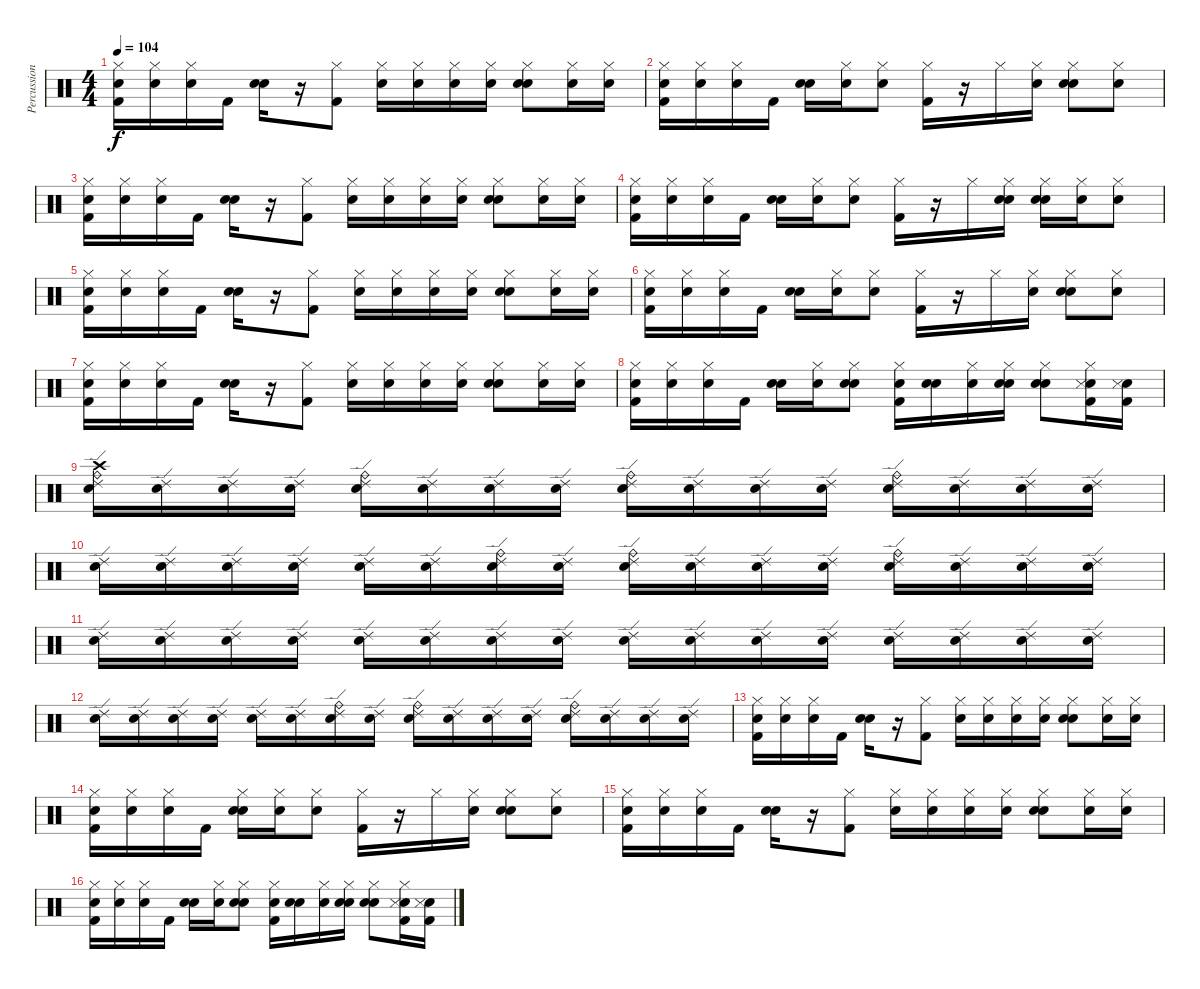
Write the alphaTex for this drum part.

\track ("Percussion" "Percussion") {instrument percussion}
\staff {score}
\articulation defaults
\ts (4 4)
\tempo 104
\clef neutral
\ks c
("Snare (hit)" "Kick (hit) 2" "Hi-Hat (closed)").16{dy f} ("Snare (hit)" "Hi-Hat (closed)").16 ("Snare (hit)" "Hi-Hat (closed)").16 "Kick (hit) 2".16 ("Snare (hit)" "Electric Snare (hit)").16 r.16 ("Hi-Hat (closed)" "Kick (hit) 2").8 ("Snare (hit)" "Hi-Hat (closed)").16 ("Snare (hit)" "Hi-Hat (closed)").16 ("Snare (hit)" "Hi-Hat (closed)").16 ("Snare (hit)" "Hi-Hat (closed)").16 ("Snare (hit)" "Electric Snare (hit)" "Hi-Hat (closed)").8 ("Snare (hit)" "Hi-Hat (closed)").16 ("Snare (hit)" "Hi-Hat (closed)").16 |
("Snare (hit)" "Hi-Hat (closed)" "Kick (hit) 2").16 ("Snare (hit)" "Hi-Hat (closed)").16 ("Snare (hit)" "Hi-Hat (closed)").16 "Kick (hit) 2".16 ("Snare (hit)" "Electric Snare (hit)").16 ("Snare (hit)" "Hi-Hat (closed)").16 ("Snare (hit)" "Hi-Hat (closed)").8 ("Kick (hit) 2" "Hi-Hat (closed)").16 r.16 "Hi-Hat (closed)".16 ("Snare (hit)" "Hi-Hat (closed)").16 ("Snare (hit)" "Electric Snare (hit)" "Hi-Hat (closed)").8 ("Snare (hit)" "Hi-Hat (closed)").8 |
("Snare (hit)" "Kick (hit) 2" "Hi-Hat (closed)").16 ("Snare (hit)" "Hi-Hat (closed)").16 ("Snare (hit)" "Hi-Hat (closed)").16 "Kick (hit) 2".16 ("Snare (hit)" "Electric Snare (hit)").16 r.16 ("Hi-Hat (closed)" "Kick (hit) 2").8 ("Snare (hit)" "Hi-Hat (closed)").16 ("Snare (hit)" "Hi-Hat (closed)").16 ("Snare (hit)" "Hi-Hat (closed)").16 ("Snare (hit)" "Hi-Hat (closed)").16 ("Snare (hit)" "Hi-Hat (closed)" "Electric Snare (hit)").8 ("Snare (hit)" "Hi-Hat (closed)").16 ("Snare (hit)" "Hi-Hat (closed)").16 |
("Snare (hit)" "Kick (hit) 2" "Hi-Hat (closed)").16 ("Snare (hit)" "Hi-Hat (closed)").16 ("Snare (hit)" "Hi-Hat (closed)").16 "Kick (hit) 2".16 ("Snare (hit)" "Electric Snare (hit)").16 ("Snare (hit)" "Hi-Hat (closed)").16 ("Snare (hit)" "Hi-Hat (closed)").8 ("Hi-Hat (closed)" "Kick (hit) 2").16 r.16 "Hi-Hat (closed)".16 ("Snare (hit)" "Hi-Hat (closed)" "Electric Snare (hit)").16 ("Snare (hit)" "Hi-Hat (closed)" "Electric Snare (hit)").16 ("Snare (hit)" "Hi-Hat (closed)").16 ("Snare (hit)" "Hi-Hat (closed)").8 |
("Snare (hit)" "Hi-Hat (closed)" "Kick (hit) 2").16 ("Snare (hit)" "Hi-Hat (closed)").16 ("Snare (hit)" "Hi-Hat (closed)").16 "Kick (hit) 2".16 ("Snare (hit)" "Electric Snare (hit)").16 r.16 ("Kick (hit) 2" "Hi-Hat (closed)").8 ("Snare (hit)" "Hi-Hat (closed)").16 ("Snare (hit)" "Hi-Hat (closed)").16 ("Snare (hit)" "Hi-Hat (closed)").16 ("Snare (hit)" "Hi-Hat (closed)").16 ("Snare (hit)" "Electric Snare (hit)" "Hi-Hat (closed)").8 ("Snare (hit)" "Hi-Hat (closed)").16 ("Snare (hit)" "Hi-Hat (closed)").16 |
("Snare (hit)" "Kick (hit) 2" "Hi-Hat (closed)").16 ("Snare (hit)" "Hi-Hat (closed)").16 ("Snare (hit)" "Hi-Hat (closed)").16 "Kick (hit) 2".16 ("Snare (hit)" "Electric Snare (hit)").16 ("Snare (hit)" "Hi-Hat (closed)").16 ("Snare (hit)" "Hi-Hat (closed)").8 ("Hi-Hat (closed)" "Kick (hit) 2").16 r.16 "Hi-Hat (closed)".16 ("Snare (hit)" "Hi-Hat (closed)").16 ("Snare (hit)" "Hi-Hat (closed)" "Electric Snare (hit)").8 ("Snare (hit)" "Hi-Hat (closed)").8 |
("Snare (hit)" "Hi-Hat (closed)" "Kick (hit) 2").16 ("Snare (hit)" "Hi-Hat (closed)").16 ("Snare (hit)" "Hi-Hat (closed)").16 "Kick (hit) 2".16 ("Snare (hit)" "Electric Snare (hit)").16 r.16 ("Kick (hit) 2" "Hi-Hat (closed)").8 ("Snare (hit)" "Hi-Hat (closed)").16 ("Snare (hit)" "Hi-Hat (closed)").16 ("Snare (hit)" "Hi-Hat (closed)").16 ("Snare (hit)" "Hi-Hat (closed)").16 ("Snare (hit)" "Electric Snare (hit)" "Hi-Hat (closed)").8 ("Snare (hit)" "Hi-Hat (closed)").16 ("Snare (hit)" "Hi-Hat (closed)").16 |
("Snare (hit)" "Kick (hit) 2" "Hi-Hat (closed)").16 ("Snare (hit)" "Hi-Hat (closed)").16 ("Snare (hit)" "Hi-Hat (closed)").16 "Kick (hit) 2".16 ("Snare (hit)" "Electric Snare (hit)").16 ("Snare (hit)" "Hi-Hat (closed)").16 ("Snare (hit)" "Electric Snare (hit)" "Hi-Hat (closed)").8 ("Snare (hit)" "Hi-Hat (closed)" "Kick (hit) 2").16 ("Snare (hit)" "Electric Snare (hit)").16 ("Snare (hit)" "Hi-Hat (closed)").16 ("Snare (hit)" "Hi-Hat (closed)" "Electric Snare (hit)").16 ("Snare (hit)" "Hi-Hat (closed)" "Electric Snare (hit)").8 ("Snare (hit)" "Metronome (hit)" "Hi-Hat (closed)" "Kick (hit) 2").16 ("Snare (hit)" "Metronome (hit)" "Kick (hit) 2").16 |
("Snare (hit)" "Ride (bell)" "Crash high (hit)" "Ride (edge) 2").16 ("Snare (hit)" "Ride (edge) 2").16 ("Snare (hit)" "Ride (edge) 2").16 ("Snare (hit)" "Ride (edge) 2").16 ("Snare (hit)" "Ride (edge) 2" "Ride (bell)").16 ("Snare (hit)" "Ride (edge) 2").16 ("Snare (hit)" "Ride (edge) 2").16 ("Snare (hit)" "Ride (edge) 2").16 ("Snare (hit)" "Ride (edge) 2" "Ride (bell)").16 ("Snare (hit)" "Ride (edge) 2").16 ("Snare (hit)" "Ride (edge) 2").16 ("Snare (hit)" "Ride (edge) 2").16 ("Snare (hit)" "Ride (bell)" "Ride (edge) 2").16 ("Snare (hit)" "Ride (edge) 2").16 ("Snare (hit)" "Ride (edge) 2").16 ("Snare (hit)" "Ride (edge) 2").16 |
("Snare (hit)" "Ride (edge) 2").16 ("Snare (hit)" "Ride (edge) 2").16 ("Snare (hit)" "Ride (edge) 2").16 ("Snare (hit)" "Ride (edge) 2").16 ("Snare (hit)" "Ride (edge) 2").16 ("Snare (hit)" "Ride (edge) 2").16 ("Snare (hit)" "Ride (edge) 2" "Ride (bell)").16 ("Snare (hit)" "Ride (edge) 2").16 ("Snare (hit)" "Ride (edge) 2" "Ride (bell)").16 ("Snare (hit)" "Ride (edge) 2").16 ("Snare (hit)" "Ride (edge) 2").16 ("Snare (hit)" "Ride (edge) 2").16 ("Snare (hit)" "Ride (bell)" "Ride (edge) 2").16 ("Snare (hit)" "Ride (edge) 2").16 ("Snare (hit)" "Ride (edge) 2").16 ("Snare (hit)" "Ride (edge) 2").16 |
("Snare (hit)" "Ride (edge) 2").16 ("Snare (hit)" "Ride (edge) 2").16 ("Snare (hit)" "Ride (edge) 2").16 ("Snare (hit)" "Ride (edge) 2").16 ("Snare (hit)" "Ride (edge) 2").16 ("Snare (hit)" "Ride (edge) 2").16 ("Snare (hit)" "Ride (edge) 2").16 ("Snare (hit)" "Ride (edge) 2").16 ("Snare (hit)" "Ride (edge) 2").16 ("Snare (hit)" "Ride (edge) 2").16 ("Snare (hit)" "Ride (edge) 2").16 ("Snare (hit)" "Ride (edge) 2").16 ("Snare (hit)" "Ride (edge) 2").16 ("Snare (hit)" "Ride (edge) 2").16 ("Snare (hit)" "Ride (edge) 2").16 ("Snare (hit)" "Ride (edge) 2").16 |
("Snare (hit)" "Ride (edge) 2").16 ("Snare (hit)" "Ride (edge) 2").16 ("Snare (hit)" "Ride (edge) 2").16 ("Snare (hit)" "Ride (edge) 2").16 ("Snare (hit)" "Ride (edge) 2").16 ("Snare (hit)" "Ride (edge) 2").16 ("Snare (hit)" "Ride (edge) 2" "Ride (bell)").16 ("Snare (hit)" "Ride (edge) 2").16 ("Snare (hit)" "Ride (edge) 2" "Ride (bell)").16 ("Snare (hit)" "Ride (edge) 2").16 ("Snare (hit)" "Ride (edge) 2").16 ("Snare (hit)" "Ride (edge) 2").16 ("Snare (hit)" "Ride (edge) 2" "Ride (bell)").16 ("Snare (hit)" "Ride (edge) 2").16 ("Snare (hit)" "Ride (edge) 2").16 ("Snare (hit)" "Ride (edge) 2").16 |
("Snare (hit)" "Hi-Hat (closed)" "Kick (hit) 2").16 ("Snare (hit)" "Hi-Hat (closed)").16 ("Snare (hit)" "Hi-Hat (closed)").16 "Kick (hit) 2".16 ("Snare (hit)" "Electric Snare (hit)").16 r.16 ("Kick (hit) 2" "Hi-Hat (closed)").8 ("Snare (hit)" "Hi-Hat (closed)").16 ("Snare (hit)" "Hi-Hat (closed)").16 ("Snare (hit)" "Hi-Hat (closed)").16 ("Snare (hit)" "Hi-Hat (closed)").16 ("Snare (hit)" "Electric Snare (hit)" "Hi-Hat (closed)").8 ("Snare (hit)" "Hi-Hat (closed)").16 ("Snare (hit)" "Hi-Hat (closed)").16 |
("Snare (hit)" "Kick (hit) 2" "Hi-Hat (closed)").16 ("Snare (hit)" "Hi-Hat (closed)").16 ("Snare (hit)" "Hi-Hat (closed)").16 "Kick (hit) 2".16 ("Snare (hit)" "Electric Snare (hit)" "Hi-Hat (closed)").16 ("Snare (hit)" "Hi-Hat (closed)").16 ("Snare (hit)" "Hi-Hat (closed)").8 ("Hi-Hat (closed)" "Kick (hit) 2").16 r.16 "Hi-Hat (closed)".16 ("Snare (hit)" "Hi-Hat (closed)").16 ("Snare (hit)" "Hi-Hat (closed)" "Electric Snare (hit)").8 ("Snare (hit)" "Hi-Hat (closed)").8 |
("Snare (hit)" "Kick (hit) 2" "Hi-Hat (closed)").16 ("Snare (hit)" "Hi-Hat (closed)").16 ("Snare (hit)" "Hi-Hat (closed)").16 "Kick (hit) 2".16 ("Snare (hit)" "Electric Snare (hit)").16 r.16 ("Hi-Hat (closed)" "Kick (hit) 2").8 ("Snare (hit)" "Hi-Hat (closed)").16 ("Snare (hit)" "Hi-Hat (closed)").16 ("Snare (hit)" "Hi-Hat (closed)").16 ("Snare (hit)" "Hi-Hat (closed)").16 ("Snare (hit)" "Hi-Hat (closed)" "Electric Snare (hit)").8 ("Snare (hit)" "Hi-Hat (closed)").16 ("Snare (hit)" "Hi-Hat (closed)").16 |
("Snare (hit)" "Hi-Hat (closed)" "Kick (hit) 2").16 ("Snare (hit)" "Hi-Hat (closed)").16 ("Snare (hit)" "Hi-Hat (closed)").16 "Kick (hit) 2".16 ("Snare (hit)" "Electric Snare (hit)").16 ("Snare (hit)" "Hi-Hat (closed)").16 ("Snare (hit)" "Hi-Hat (closed)" "Electric Snare (hit)").8 ("Snare (hit)" "Kick (hit) 2" "Hi-Hat (closed)").16 ("Snare (hit)" "Electric Snare (hit)").16 ("Snare (hit)" "Hi-Hat (closed)").16 ("Snare (hit)" "Hi-Hat (closed)" "Electric Snare (hit)").16 ("Snare (hit)" "Electric Snare (hit)" "Hi-Hat (closed)").8 ("Snare (hit)" "Kick (hit) 2" "Hi-Hat (closed)" "Metronome (hit)").16 ("Snare (hit)" "Kick (hit) 2" "Metronome (hit)").16
